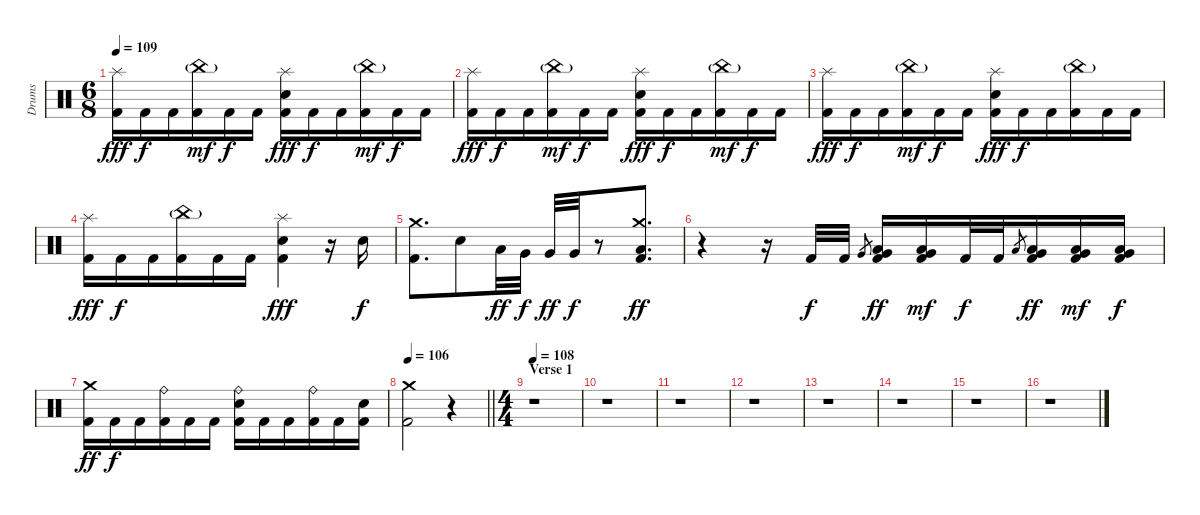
\track ("Drums" "Drums") {instrument percussion}
\staff {score}
\articulation defaults
\ts (6 8)
\tempo 109
\clef neutral
\ks c
("Splash (hit)" "Kick (hit) 2").16{dy fff} "Kick (hit) 2".16{dy f} "Kick (hit) 2".16 ("China (hit)"{g} "Kick (hit) 2").16{dy mf} "Kick (hit) 2".16{dy f} "Kick (hit) 2".16 ("Splash (hit)" "Electric Snare (hit)" "Kick (hit) 2").16{dy fff} "Kick (hit) 2".16{dy f} "Kick (hit) 2".16 ("China (hit)"{g} "Kick (hit) 2").16{dy mf} "Kick (hit) 2".16{dy f} "Kick (hit) 2".16 |
("Splash (hit)" "Kick (hit) 2").16{dy fff} "Kick (hit) 2".16{dy f} "Kick (hit) 2".16 ("China (hit)"{g} "Kick (hit) 2").16{dy mf} "Kick (hit) 2".16{dy f} "Kick (hit) 2".16 ("Splash (hit)" "Electric Snare (hit)" "Kick (hit) 2").16{dy fff} "Kick (hit) 2".16{dy f} "Kick (hit) 2".16 ("China (hit)"{g} "Kick (hit) 2").16{dy mf} "Kick (hit) 2".16{dy f} "Kick (hit) 2".16 |
("Splash (hit)" "Kick (hit) 2").16{dy fff} "Kick (hit) 2".16{dy f} "Kick (hit) 2".16 ("China (hit)"{g} "Kick (hit) 2").16{dy mf} "Kick (hit) 2".16{dy f} "Kick (hit) 2".16 ("Splash (hit)" "Electric Snare (hit)" "Kick (hit) 2").16{dy fff} "Kick (hit) 2".16{dy f} "Kick (hit) 2".16 ("China (hit)"{g} "Kick (hit) 2").16 "Kick (hit) 2".16 "Kick (hit) 2".16 |
("Splash (hit)" "Kick (hit) 2").16{dy fff} "Kick (hit) 2".16{dy f} "Kick (hit) 2".16 ("China (hit)"{g} "Kick (hit) 2").16 "Kick (hit) 2".16 "Kick (hit) 2".16 ("Splash (hit)" "Electric Snare (hit)" "Kick (hit) 2").4{dy fff} r.16 "Electric Snare (hit)".16{dy f} |
("Crash medium (hit)" "Kick (hit) 2").8{d} "Electric Snare (hit)".8 "Low Tom (hit)".32{dy ff} "Very Low Tom (hit)".32{dy f} "Very Low Tom (hit)".32{dy ff} "Very Low Tom (hit)".32{dy f} r.8 ("Crash medium (hit)" "Low Floor Tom (hit)" "Kick (hit) 2").8{d dy ff} |
r.4 r.16 "Kick (hit) 2".32{dy f} "Kick (hit) 2".32 "Very Low Tom (hit)".8{gr} ("Low Tom (hit)" "Very Low Tom (hit)" "Kick (hit) 2").16{dy ff} ("Low Tom (hit)" "Very Low Tom (hit)" "Kick (hit) 2").16{dy mf} "Kick (hit) 2".32{dy f} "Kick (hit) 2".32 "Low Floor Tom (hit)".8{gr} ("Very Low Tom (hit)" "Low Floor Tom (hit)" "Kick (hit) 2").16{dy ff} ("Very Low Tom (hit)" "Low Floor Tom (hit)" "Kick (hit) 2").16{dy mf} ("Very Low Tom (hit)" "Low Floor Tom (hit)" "Kick (hit) 2").16{dy f} |
("Crash medium (hit)" "Kick (hit) 2").16{dy ff} "Kick (hit) 2".16{dy f} "Kick (hit) 2".16 ("Ride (bell)" "Kick (hit) 2").16 "Kick (hit) 2".16 "Kick (hit) 2".16 ("Ride (bell)" "Electric Snare (hit)" "Kick (hit) 2").16 "Kick (hit) 2".16 "Kick (hit) 2".16 ("Ride (bell)" "Kick (hit) 2").16 "Kick (hit) 2".16 ("Electric Snare (hit)" "Kick (hit) 2").16 |
\tempo 106
\barLineRight lightlight
("Crash medium (hit)" "Kick (hit) 2").2 r.4 |
\ts (4 4)
\section ("" "Verse 1")
\tempo 108
r.1 |
r.1 |
r.1 |
r.1 |
r.1 |
r.1 |
r.1 |
r.1
